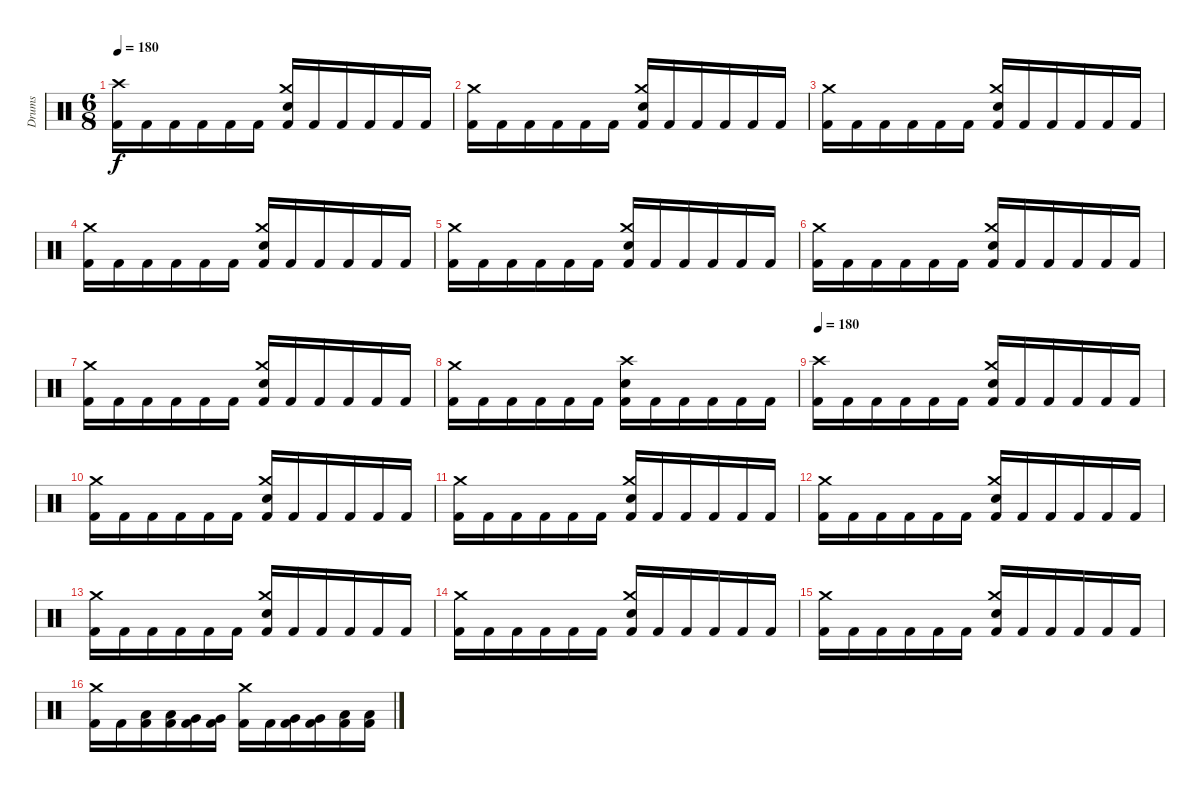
\track ("Drums" "Drums") {instrument percussion}
\staff {score}
\articulation defaults
\ts (6 8)
\tempo 180
\clef neutral
\ks c
("Crash high (hit)" "Kick (hit) 2").16{dy f} "Kick (hit) 2".16 "Kick (hit) 2".16 "Kick (hit) 2".16 "Kick (hit) 2".16 "Kick (hit) 2".16 ("Crash medium (hit)" "Electric Snare (hit)" "Kick (hit) 2").16 "Kick (hit) 2".16 "Kick (hit) 2".16 "Kick (hit) 2".16 "Kick (hit) 2".16 "Kick (hit) 2".16 |
("Crash medium (hit)" "Kick (hit) 2").16 "Kick (hit) 2".16 "Kick (hit) 2".16 "Kick (hit) 2".16 "Kick (hit) 2".16 "Kick (hit) 2".16 ("Crash medium (hit)" "Electric Snare (hit)" "Kick (hit) 2").16 "Kick (hit) 2".16 "Kick (hit) 2".16 "Kick (hit) 2".16 "Kick (hit) 2".16 "Kick (hit) 2".16 |
("Crash medium (hit)" "Kick (hit) 2").16 "Kick (hit) 2".16 "Kick (hit) 2".16 "Kick (hit) 2".16 "Kick (hit) 2".16 "Kick (hit) 2".16 ("Crash medium (hit)" "Electric Snare (hit)" "Kick (hit) 2").16 "Kick (hit) 2".16 "Kick (hit) 2".16 "Kick (hit) 2".16 "Kick (hit) 2".16 "Kick (hit) 2".16 |
("Crash medium (hit)" "Kick (hit) 2").16 "Kick (hit) 2".16 "Kick (hit) 2".16 "Kick (hit) 2".16 "Kick (hit) 2".16 "Kick (hit) 2".16 ("Crash medium (hit)" "Electric Snare (hit)" "Kick (hit) 2").16 "Kick (hit) 2".16 "Kick (hit) 2".16 "Kick (hit) 2".16 "Kick (hit) 2".16 "Kick (hit) 2".16 |
("Crash medium (hit)" "Kick (hit) 2").16 "Kick (hit) 2".16 "Kick (hit) 2".16 "Kick (hit) 2".16 "Kick (hit) 2".16 "Kick (hit) 2".16 ("Crash medium (hit)" "Electric Snare (hit)" "Kick (hit) 2").16 "Kick (hit) 2".16 "Kick (hit) 2".16 "Kick (hit) 2".16 "Kick (hit) 2".16 "Kick (hit) 2".16 |
("Crash medium (hit)" "Kick (hit) 2").16 "Kick (hit) 2".16 "Kick (hit) 2".16 "Kick (hit) 2".16 "Kick (hit) 2".16 "Kick (hit) 2".16 ("Crash medium (hit)" "Electric Snare (hit)" "Kick (hit) 2").16 "Kick (hit) 2".16 "Kick (hit) 2".16 "Kick (hit) 2".16 "Kick (hit) 2".16 "Kick (hit) 2".16 |
("Crash medium (hit)" "Kick (hit) 2").16 "Kick (hit) 2".16 "Kick (hit) 2".16 "Kick (hit) 2".16 "Kick (hit) 2".16 "Kick (hit) 2".16 ("Crash medium (hit)" "Electric Snare (hit)" "Kick (hit) 2").16 "Kick (hit) 2".16 "Kick (hit) 2".16 "Kick (hit) 2".16 "Kick (hit) 2".16 "Kick (hit) 2".16 |
("Crash medium (hit)" "Kick (hit) 2").16 "Kick (hit) 2".16 "Kick (hit) 2".16 "Kick (hit) 2".16 "Kick (hit) 2".16 "Kick (hit) 2".16 ("Crash high (hit)" "Electric Snare (hit)" "Kick (hit) 2").16 "Kick (hit) 2".16 "Kick (hit) 2".16 "Kick (hit) 2".16 "Kick (hit) 2".16 "Kick (hit) 2".16 |
\tempo 180
("Crash high (hit)" "Kick (hit) 2").16 "Kick (hit) 2".16 "Kick (hit) 2".16 "Kick (hit) 2".16 "Kick (hit) 2".16 "Kick (hit) 2".16 ("Crash medium (hit)" "Electric Snare (hit)" "Kick (hit) 2").16 "Kick (hit) 2".16 "Kick (hit) 2".16 "Kick (hit) 2".16 "Kick (hit) 2".16 "Kick (hit) 2".16 |
("Crash medium (hit)" "Kick (hit) 2").16 "Kick (hit) 2".16 "Kick (hit) 2".16 "Kick (hit) 2".16 "Kick (hit) 2".16 "Kick (hit) 2".16 ("Crash medium (hit)" "Electric Snare (hit)" "Kick (hit) 2").16 "Kick (hit) 2".16 "Kick (hit) 2".16 "Kick (hit) 2".16 "Kick (hit) 2".16 "Kick (hit) 2".16 |
("Crash medium (hit)" "Kick (hit) 2").16 "Kick (hit) 2".16 "Kick (hit) 2".16 "Kick (hit) 2".16 "Kick (hit) 2".16 "Kick (hit) 2".16 ("Crash medium (hit)" "Electric Snare (hit)" "Kick (hit) 2").16 "Kick (hit) 2".16 "Kick (hit) 2".16 "Kick (hit) 2".16 "Kick (hit) 2".16 "Kick (hit) 2".16 |
("Crash medium (hit)" "Kick (hit) 2").16 "Kick (hit) 2".16 "Kick (hit) 2".16 "Kick (hit) 2".16 "Kick (hit) 2".16 "Kick (hit) 2".16 ("Crash medium (hit)" "Electric Snare (hit)" "Kick (hit) 2").16 "Kick (hit) 2".16 "Kick (hit) 2".16 "Kick (hit) 2".16 "Kick (hit) 2".16 "Kick (hit) 2".16 |
("Crash medium (hit)" "Kick (hit) 2").16 "Kick (hit) 2".16 "Kick (hit) 2".16 "Kick (hit) 2".16 "Kick (hit) 2".16 "Kick (hit) 2".16 ("Crash medium (hit)" "Electric Snare (hit)" "Kick (hit) 2").16 "Kick (hit) 2".16 "Kick (hit) 2".16 "Kick (hit) 2".16 "Kick (hit) 2".16 "Kick (hit) 2".16 |
("Crash medium (hit)" "Kick (hit) 2").16 "Kick (hit) 2".16 "Kick (hit) 2".16 "Kick (hit) 2".16 "Kick (hit) 2".16 "Kick (hit) 2".16 ("Crash medium (hit)" "Electric Snare (hit)" "Kick (hit) 2").16 "Kick (hit) 2".16 "Kick (hit) 2".16 "Kick (hit) 2".16 "Kick (hit) 2".16 "Kick (hit) 2".16 |
("Crash medium (hit)" "Kick (hit) 2").16 "Kick (hit) 2".16 "Kick (hit) 2".16 "Kick (hit) 2".16 "Kick (hit) 2".16 "Kick (hit) 2".16 ("Crash medium (hit)" "Electric Snare (hit)" "Kick (hit) 2").16 "Kick (hit) 2".16 "Kick (hit) 2".16 "Kick (hit) 2".16 "Kick (hit) 2".16 "Kick (hit) 2".16 |
("Crash medium (hit)" "Kick (hit) 2").16 "Kick (hit) 2".16 ("Low Tom (hit)" "Kick (hit) 2").16 ("Low Tom (hit)" "Kick (hit) 2").16 ("Very Low Tom (hit)" "Kick (hit) 2").16 ("Very Low Tom (hit)" "Kick (hit) 2").16 ("Crash medium (hit)" "Kick (hit) 2").16 "Kick (hit) 2".16 ("Very Low Tom (hit)" "Kick (hit) 2").16 ("Very Low Tom (hit)" "Kick (hit) 2").16 ("Low Floor Tom (hit)" "Kick (hit) 2").16 ("Low Floor Tom (hit)" "Kick (hit) 2").16
